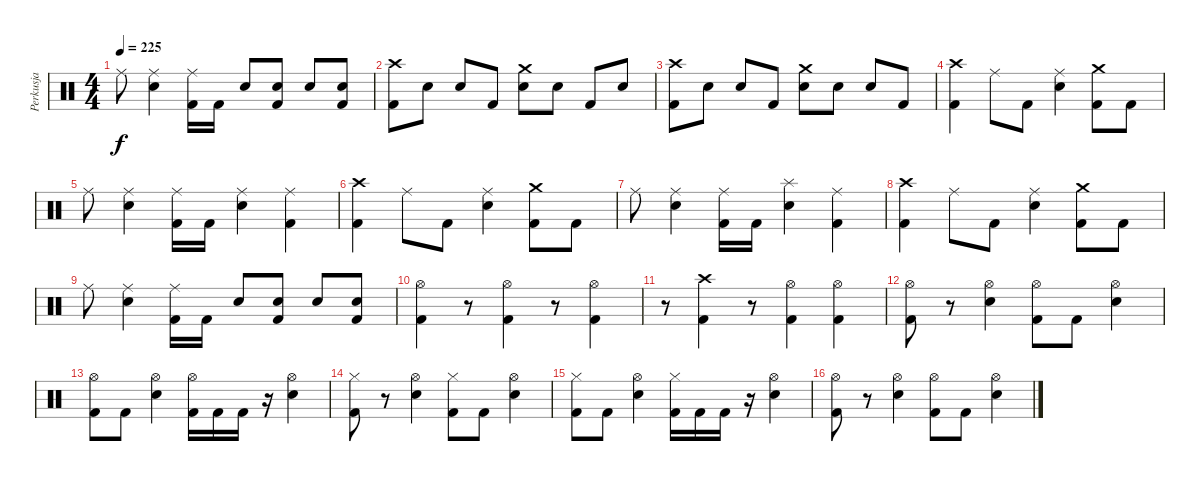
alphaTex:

\track ("Perkusja" "Perkusja") {instrument percussion}
\staff {score}
\articulation defaults
\ts (4 4)
\tempo 225
\clef neutral
\ks c "Ride (middle)".8{dy f}
("Ride (middle)" "Snare (hit) 2").4 ("Ride (middle)" "Kick (hit) 2").16 "Kick (hit) 2".16 "Snare (hit) 2".8 ("Snare (hit) 2" "Kick (hit) 2").8 "Snare (hit) 2".8 ("Snare (hit) 2" "Kick (hit) 2").8 |
("Crash high (hit)" "Kick (hit) 2").8 "Snare (hit) 2".8 "Snare (hit) 2".8 "Kick (hit) 2".8 ("Crash medium (hit)" "Snare (hit) 2").8 "Snare (hit) 2".8 "Kick (hit) 2".8 "Snare (hit) 2".8 |
("Crash high (hit)" "Kick (hit) 2").8 "Snare (hit) 2".8 "Snare (hit) 2".8 "Kick (hit) 2".8 ("Crash medium (hit)" "Snare (hit) 2").8 "Snare (hit) 2".8 "Snare (hit) 2".8 "Kick (hit) 2".8 |
("Crash high (hit)" "Kick (hit) 2").4 "Ride (middle)".8 "Kick (hit) 2".8 ("Ride (middle)" "Snare (hit) 2").4 ("Crash medium (hit)" "Kick (hit) 2").8 "Kick (hit) 2".8 |
"Ride (middle)".8 ("Ride (middle)" "Snare (hit) 2").4 ("Ride (middle)" "Kick (hit) 2").16 "Kick (hit) 2".16 ("Ride (middle)" "Snare (hit) 2").4 ("Ride (middle)" "Kick (hit) 2").4 |
("Crash high (hit)" "Kick (hit) 2").4 "Ride (middle)".8 "Kick (hit) 2".8 ("Ride (middle)" "Snare (hit) 2").4 ("Crash medium (hit)" "Kick (hit) 2").8 "Kick (hit) 2".8 |
"Ride (middle)".8 ("Ride (middle)" "Snare (hit) 2").4 ("Ride (middle)" "Kick (hit) 2").16 "Kick (hit) 2".16 ("Splash (hit)" "Snare (hit) 2").4 ("Ride (middle)" "Kick (hit) 2").4 |
("Crash high (hit)" "Kick (hit) 2").4 "Ride (middle)".8 "Kick (hit) 2".8 ("Ride (middle)" "Snare (hit) 2").4 ("Crash medium (hit)" "Kick (hit) 2").8 "Kick (hit) 2".8 |
"Ride (middle)".8 ("Ride (middle)" "Snare (hit) 2").4 ("Ride (middle)" "Kick (hit) 2").16 "Kick (hit) 2".16 "Snare (hit) 2".8 ("Snare (hit) 2" "Kick (hit) 2").8 "Snare (hit) 2".8 ("Snare (hit) 2" "Kick (hit) 2").8 |
("Hi-Hat (open)" "Kick (hit) 2").4 r.8 ("Hi-Hat (open)" "Kick (hit) 2").4 r.8 ("Hi-Hat (open)" "Kick (hit) 2").4 |
r.8 ("Crash high (hit)" "Kick (hit) 2").4 r.8 ("Hi-Hat (open)" "Kick (hit) 2").4 ("Hi-Hat (open)" "Kick (hit) 2").4 |
("Hi-Hat (open)" "Kick (hit) 2").8 r.8 ("Hi-Hat (open)" "Snare (hit) 2").4 ("Hi-Hat (open)" "Kick (hit) 2").8 "Kick (hit) 2".8 ("Hi-Hat (open)" "Snare (hit) 2").4 |
("Hi-Hat (open)" "Kick (hit) 2").8 "Kick (hit) 2".8 ("Hi-Hat (open)" "Snare (hit) 2").4 ("Hi-Hat (open)" "Kick (hit) 2").16 "Kick (hit) 2".16 "Kick (hit) 2".16 r.16 ("Hi-Hat (open)" "Snare (hit) 2").4 |
("Hi-Hat (closed)" "Kick (hit) 2").8 r.8 ("Hi-Hat (open)" "Snare (hit) 2").4 ("Hi-Hat (closed)" "Kick (hit) 2").8 "Kick (hit) 2".8 ("Hi-Hat (open)" "Snare (hit) 2").4 |
("Hi-Hat (closed)" "Kick (hit) 2").8 "Kick (hit) 2".8 ("Hi-Hat (open)" "Snare (hit) 2").4 ("Hi-Hat (closed)" "Kick (hit) 2").16 "Kick (hit) 2".16 "Kick (hit) 2".16 r.16 ("Hi-Hat (open)" "Snare (hit) 2").4 |
("Hi-Hat (open)" "Kick (hit) 2").8 r.8 ("Hi-Hat (open)" "Snare (hit) 2").4 ("Hi-Hat (open)" "Kick (hit) 2").8 "Kick (hit) 2".8 ("Hi-Hat (open)" "Snare (hit) 2").4
